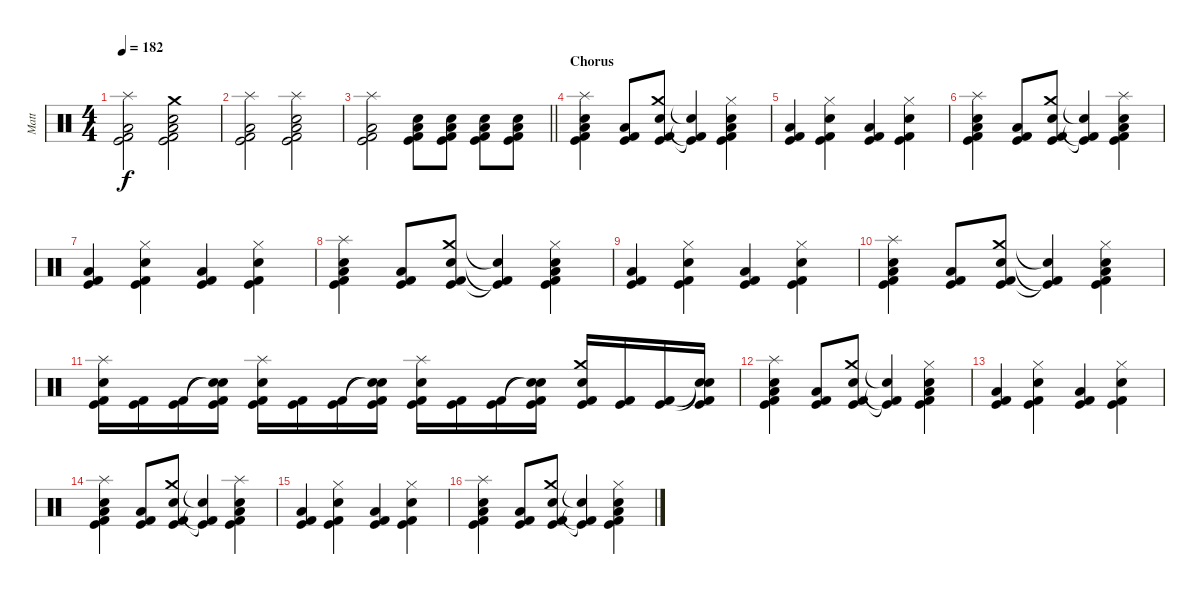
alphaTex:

\track ("Matt" "Matt") {instrument percussion}
\staff {score}
\articulation defaults
\ts (4 4)
\tempo 182
\clef neutral
\ks c
("Splash (hit)" "Low Floor Tom (hit)" "Kick (hit)" "Kick (hit) 2").2{dy f} ("Crash medium (hit)" "Electric Snare (hit)" "Low Floor Tom (hit)" "Kick (hit)" "Kick (hit) 2").2 |
("Splash (hit)" "Low Floor Tom (hit)" "Kick (hit)" "Kick (hit) 2").2 ("Splash (hit)" "Electric Snare (hit)" "Low Floor Tom (hit)" "Kick (hit)" "Kick (hit) 2").2 |
\barLineRight lightlight
("Splash (hit)" "Low Floor Tom (hit)" "Kick (hit)" "Kick (hit) 2").2 ("Electric Snare (hit)" "Low Floor Tom (hit)" "Kick (hit)" "Kick (hit) 2").8 ("Electric Snare (hit)" "Low Floor Tom (hit)" "Kick (hit)" "Kick (hit) 2").8 ("Electric Snare (hit)" "Low Floor Tom (hit)" "Kick (hit)" "Kick (hit) 2").8 ("Electric Snare (hit)" "Low Floor Tom (hit)" "Kick (hit)" "Kick (hit) 2").8 |
\section ("" "Chorus")
("Splash (hit)" "Electric Snare (hit)" "Low Floor Tom (hit)" "Kick (hit)" "Kick (hit) 2").4 ("Low Floor Tom (hit)" "Kick (hit)" "Kick (hit) 2").8 ("Crash medium (hit)" "Electric Snare (hit)" "Kick (hit)" "Kick (hit) 2").8 ("Electric Snare (hit)"{t} "Kick (hit)"{t} "Kick (hit) 2"{t}).4 ("Hi-Hat (closed)" "Electric Snare (hit)" "Low Floor Tom (hit)" "Kick (hit)" "Kick (hit) 2").4 |
("Low Floor Tom (hit)" "Kick (hit)" "Kick (hit) 2").4 ("Hi-Hat (closed)" "Electric Snare (hit)" "Kick (hit)" "Kick (hit) 2").4 ("Low Floor Tom (hit)" "Kick (hit)" "Kick (hit) 2").4 ("Hi-Hat (closed)" "Electric Snare (hit)" "Kick (hit)" "Kick (hit) 2").4 |
("Splash (hit)" "Electric Snare (hit)" "Low Floor Tom (hit)" "Kick (hit)" "Kick (hit) 2").4 ("Low Floor Tom (hit)" "Kick (hit)" "Kick (hit) 2").8 ("Crash medium (hit)" "Electric Snare (hit)" "Kick (hit)" "Kick (hit) 2").8 ("Electric Snare (hit)"{t} "Kick (hit)"{t} "Kick (hit) 2"{t}).4 ("Splash (hit)" "Electric Snare (hit)" "Low Floor Tom (hit)" "Kick (hit)" "Kick (hit) 2").4 |
("Low Floor Tom (hit)" "Kick (hit)" "Kick (hit) 2").4 ("Hi-Hat (closed)" "Electric Snare (hit)" "Kick (hit)" "Kick (hit) 2").4 ("Low Floor Tom (hit)" "Kick (hit)" "Kick (hit) 2").4 ("Hi-Hat (closed)" "Electric Snare (hit)" "Kick (hit)" "Kick (hit) 2").4 |
("Splash (hit)" "Electric Snare (hit)" "Low Floor Tom (hit)" "Kick (hit)" "Kick (hit) 2").4 ("Low Floor Tom (hit)" "Kick (hit)" "Kick (hit) 2").8 ("Crash medium (hit)" "Electric Snare (hit)" "Kick (hit)" "Kick (hit) 2").8 ("Electric Snare (hit)"{t} "Kick (hit)"{t} "Kick (hit) 2"{t}).4 ("Hi-Hat (closed)" "Electric Snare (hit)" "Low Floor Tom (hit)" "Kick (hit)" "Kick (hit) 2").4 |
("Low Floor Tom (hit)" "Kick (hit)" "Kick (hit) 2").4 ("Hi-Hat (closed)" "Electric Snare (hit)" "Kick (hit)" "Kick (hit) 2").4 ("Low Floor Tom (hit)" "Kick (hit)" "Kick (hit) 2").4 ("Hi-Hat (closed)" "Electric Snare (hit)" "Kick (hit)" "Kick (hit) 2").4 |
("Splash (hit)" "Electric Snare (hit)" "Low Floor Tom (hit)" "Kick (hit)" "Kick (hit) 2").4 ("Low Floor Tom (hit)" "Kick (hit)" "Kick (hit) 2").8 ("Crash medium (hit)" "Electric Snare (hit)" "Kick (hit)" "Kick (hit) 2").8 ("Electric Snare (hit)"{t} "Kick (hit)"{t} "Kick (hit) 2"{t}).4 ("Hi-Hat (closed)" "Electric Snare (hit)" "Low Floor Tom (hit)" "Kick (hit)" "Kick (hit) 2").4 |
("Splash (hit)" "Electric Snare (hit)" "Kick (hit)" "Kick (hit) 2").16 ("Kick (hit)" "Kick (hit) 2").16 ("Kick (hit)" "Kick (hit) 2").16 ("Snare (hit)"{t} "Snare (hit)"{t} "Kick (hit)" "Kick (hit) 2").16 ("Splash (hit)" "Electric Snare (hit)" "Kick (hit)" "Kick (hit) 2").16 ("Kick (hit)" "Kick (hit) 2").16 ("Kick (hit)" "Kick (hit) 2").16 ("Snare (hit)"{t} "Snare (hit)"{t} "Kick (hit)" "Kick (hit) 2").16 ("Splash (hit)" "Electric Snare (hit)" "Kick (hit)" "Kick (hit) 2").16 ("Kick (hit)" "Kick (hit) 2").16 ("Kick (hit)" "Kick (hit) 2").16 ("Snare (hit)"{t} "Snare (hit)"{t} "Kick (hit)" "Kick (hit) 2").16 ("Crash medium (hit)" "Electric Snare (hit)" "Kick (hit)" "Kick (hit) 2").16 ("Kick (hit)" "Kick (hit) 2").16 ("Kick (hit)" "Kick (hit) 2").16 ("Snare (hit)"{t} "Snare (hit)"{t} "Kick (hit)" "Kick (hit) 2").16 |
("Splash (hit)" "Electric Snare (hit)" "Low Floor Tom (hit)" "Kick (hit)" "Kick (hit) 2").4 ("Low Floor Tom (hit)" "Kick (hit)" "Kick (hit) 2").8 ("Crash medium (hit)" "Electric Snare (hit)" "Kick (hit)" "Kick (hit) 2").8 ("Electric Snare (hit)"{t} "Kick (hit)"{t} "Kick (hit) 2"{t}).4 ("Hi-Hat (closed)" "Electric Snare (hit)" "Low Floor Tom (hit)" "Kick (hit)" "Kick (hit) 2").4 |
("Low Floor Tom (hit)" "Kick (hit)" "Kick (hit) 2").4 ("Hi-Hat (closed)" "Electric Snare (hit)" "Kick (hit)" "Kick (hit) 2").4 ("Low Floor Tom (hit)" "Kick (hit)" "Kick (hit) 2").4 ("Hi-Hat (closed)" "Electric Snare (hit)" "Kick (hit)" "Kick (hit) 2").4 |
("Splash (hit)" "Electric Snare (hit)" "Low Floor Tom (hit)" "Kick (hit)" "Kick (hit) 2").4 ("Low Floor Tom (hit)" "Kick (hit)" "Kick (hit) 2").8 ("Crash medium (hit)" "Electric Snare (hit)" "Kick (hit)" "Kick (hit) 2").8 ("Electric Snare (hit)"{t} "Kick (hit)"{t} "Kick (hit) 2"{t}).4 ("Splash (hit)" "Electric Snare (hit)" "Low Floor Tom (hit)" "Kick (hit)" "Kick (hit) 2").4 |
("Low Floor Tom (hit)" "Kick (hit)" "Kick (hit) 2").4 ("Hi-Hat (closed)" "Electric Snare (hit)" "Kick (hit)" "Kick (hit) 2").4 ("Low Floor Tom (hit)" "Kick (hit)" "Kick (hit) 2").4 ("Hi-Hat (closed)" "Electric Snare (hit)" "Kick (hit)" "Kick (hit) 2").4 |
("Splash (hit)" "Electric Snare (hit)" "Low Floor Tom (hit)" "Kick (hit)" "Kick (hit) 2").4 ("Low Floor Tom (hit)" "Kick (hit)" "Kick (hit) 2").8 ("Crash medium (hit)" "Electric Snare (hit)" "Kick (hit)" "Kick (hit) 2").8 ("Electric Snare (hit)"{t} "Kick (hit)"{t} "Kick (hit) 2"{t}).4 ("Hi-Hat (closed)" "Electric Snare (hit)" "Low Floor Tom (hit)" "Kick (hit)" "Kick (hit) 2").4
